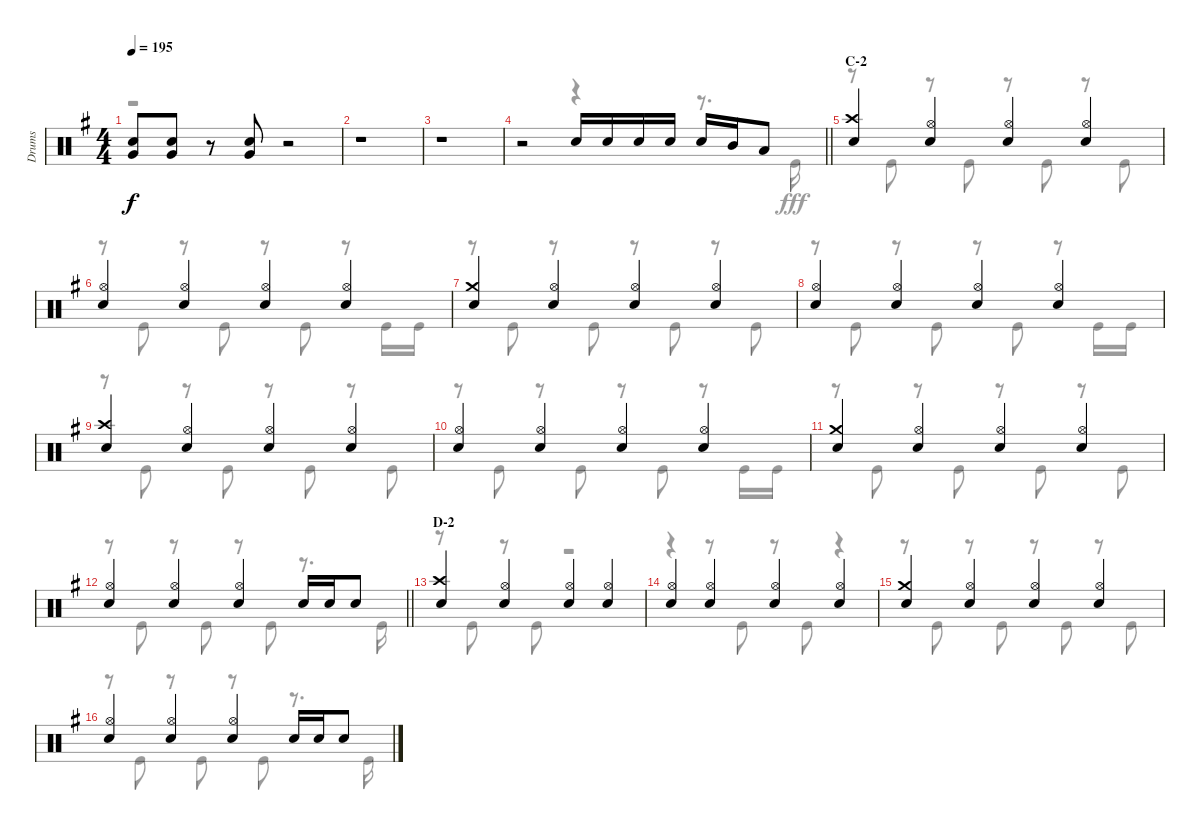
\track ("Drums" "Drums") {instrument percussion}
\staff {score}
\articulation defaults
\voice
\ts (4 4)
\tempo 195
\clef neutral
\ks g
("Snare (hit) 2" "Very Low Tom (hit)").8{dy f} ("Snare (hit) 2" "Very Low Tom (hit)").8 r.8 ("Snare (hit) 2" "Very Low Tom (hit)").8 r.2 |
r.1 |
r.1 |
\barLineRight lightlight
r.2 "Snare (hit) 2".16 "Snare (hit) 2".16 "Snare (hit) 2".16 "Snare (hit) 2".16 "Snare (hit) 2".16 "Mid Tom (hit)".16 "Low Tom (hit)".8 |
\section ("" "C-2")
("Crash high (hit)" "Snare (hit) 2").4 ("Hi-Hat (open)" "Snare (hit) 2").4 ("Hi-Hat (open)" "Snare (hit) 2").4 ("Hi-Hat (open)" "Snare (hit) 2").4 |
("Hi-Hat (open)" "Snare (hit) 2").4 ("Hi-Hat (open)" "Snare (hit) 2").4 ("Hi-Hat (open)" "Snare (hit) 2").4 ("Hi-Hat (open)" "Snare (hit) 2").4 |
("Crash medium (hit)" "Snare (hit) 2").4 ("Hi-Hat (open)" "Snare (hit) 2").4 ("Hi-Hat (open)" "Snare (hit) 2").4 ("Hi-Hat (open)" "Snare (hit) 2").4 |
("Hi-Hat (open)" "Snare (hit) 2").4 ("Hi-Hat (open)" "Snare (hit) 2").4 ("Hi-Hat (open)" "Snare (hit) 2").4 ("Hi-Hat (open)" "Snare (hit) 2").4 |
("Crash high (hit)" "Snare (hit) 2").4 ("Hi-Hat (open)" "Snare (hit) 2").4 ("Hi-Hat (open)" "Snare (hit) 2").4 ("Hi-Hat (open)" "Snare (hit) 2").4 |
("Hi-Hat (open)" "Snare (hit) 2").4 ("Hi-Hat (open)" "Snare (hit) 2").4 ("Hi-Hat (open)" "Snare (hit) 2").4 ("Hi-Hat (open)" "Snare (hit) 2").4 |
("Crash medium (hit)" "Snare (hit) 2").4 ("Hi-Hat (open)" "Snare (hit) 2").4 ("Hi-Hat (open)" "Snare (hit) 2").4 ("Hi-Hat (open)" "Snare (hit) 2").4 |
\barLineRight lightlight
("Hi-Hat (open)" "Snare (hit) 2").4 ("Hi-Hat (open)" "Snare (hit) 2").4 ("Hi-Hat (open)" "Snare (hit) 2").4 "Snare (hit) 2".16 "Snare (hit) 2".16 "Snare (hit) 2".8 |
\section ("" "D-2")
("Crash high (hit)" "Snare (hit) 2").4 ("Hi-Hat (open)" "Snare (hit) 2").4 ("Hi-Hat (open)" "Snare (hit) 2").4 ("Hi-Hat (open)" "Snare (hit) 2").4 |
("Hi-Hat (open)" "Snare (hit) 2").4 ("Hi-Hat (open)" "Snare (hit) 2").4 ("Hi-Hat (open)" "Snare (hit) 2").4 ("Hi-Hat (open)" "Snare (hit) 2").4 |
("Crash medium (hit)" "Snare (hit) 2").4 ("Hi-Hat (open)" "Snare (hit) 2").4 ("Hi-Hat (open)" "Snare (hit) 2").4 ("Hi-Hat (open)" "Snare (hit) 2").4 |
("Hi-Hat (open)" "Snare (hit) 2").4 ("Hi-Hat (open)" "Snare (hit) 2").4 ("Hi-Hat (open)" "Snare (hit) 2").4 "Snare (hit) 2".16 "Snare (hit) 2".16 "Snare (hit) 2".8
\voice
\clef neutral
\ottava regular
\simile none
\ks g
r.1{dy fff} |
r.1 |
r.1 |
\barLineRight lightlight
r.2 r.4 r.8{d} "Kick (hit)".16 |
r.8 "Kick (hit)".8 r.8 "Kick (hit)".8 r.8 "Kick (hit)".8 r.8 "Kick (hit)".8 |
r.8 "Kick (hit)".8 r.8 "Kick (hit)".8 r.8 "Kick (hit)".8 r.8 "Kick (hit)".16 "Kick (hit)".16 |
r.8 "Kick (hit)".8 r.8 "Kick (hit)".8 r.8 "Kick (hit)".8 r.8 "Kick (hit)".8 |
r.8 "Kick (hit)".8 r.8 "Kick (hit)".8 r.8 "Kick (hit)".8 r.8 "Kick (hit)".16 "Kick (hit)".16 |
r.8 "Kick (hit)".8 r.8 "Kick (hit)".8 r.8 "Kick (hit)".8 r.8 "Kick (hit)".8 |
r.8 "Kick (hit)".8 r.8 "Kick (hit)".8 r.8 "Kick (hit)".8 r.8 "Kick (hit)".16 "Kick (hit)".16 |
r.8 "Kick (hit)".8 r.8 "Kick (hit)".8 r.8 "Kick (hit)".8 r.8 "Kick (hit)".8 |
\barLineRight lightlight
r.8 "Kick (hit)".8 r.8 "Kick (hit)".8 r.8 "Kick (hit)".8 r.8{d} "Kick (hit)".16 |
r.8 "Kick (hit)".8 r.8 "Kick (hit)".8 r.2 |
r.4 r.8 "Kick (hit)".8 r.8 "Kick (hit)".8 r.4 |
r.8 "Kick (hit)".8 r.8 "Kick (hit)".8 r.8 "Kick (hit)".8 r.8 "Kick (hit)".8 |
r.8 "Kick (hit)".8 r.8 "Kick (hit)".8 r.8 "Kick (hit)".8 r.8{d} "Kick (hit)".16
